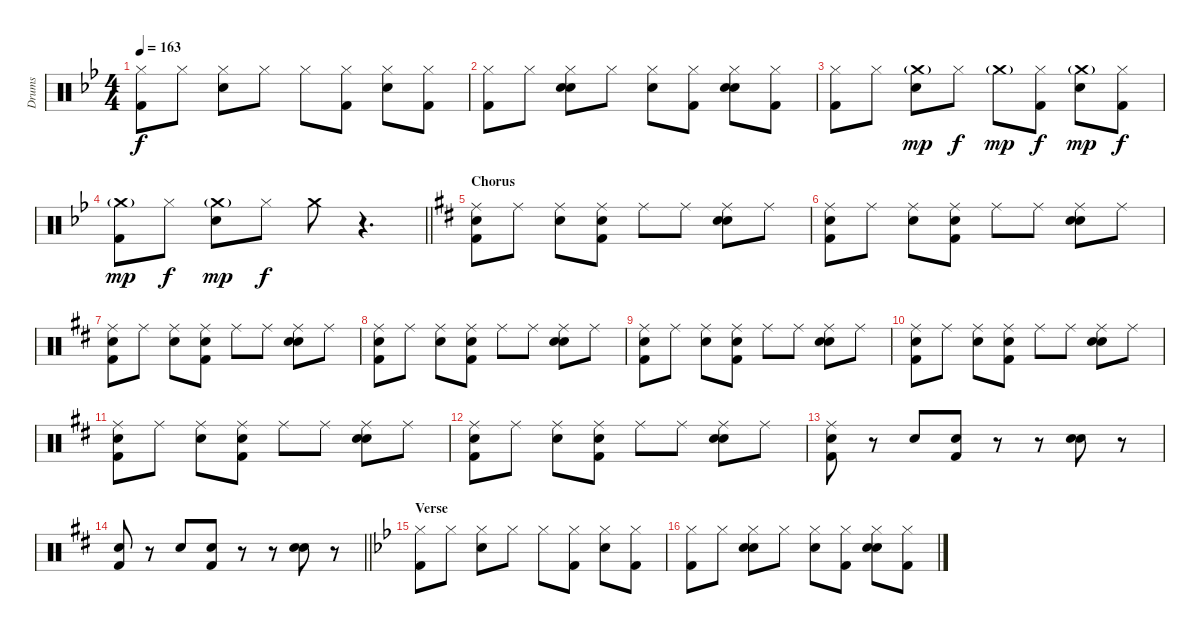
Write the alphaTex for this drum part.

\track ("Drums" "Drums") {instrument percussion}
\staff {score}
\articulation defaults
\ts (4 4)
\tempo 163
\clef neutral
\ks bb
("Hi-Hat (closed)" "Kick (hit) 2").8{dy f} "Hi-Hat (closed)".8 ("Hi-Hat (closed)" "Snare (hit) 2").8 "Hi-Hat (closed)".8 "Hi-Hat (closed)".8 ("Hi-Hat (closed)" "Kick (hit) 2").8 ("Hi-Hat (closed)" "Snare (hit) 2").8 ("Hi-Hat (closed)" "Kick (hit) 2").8 |
("Hi-Hat (closed)" "Kick (hit) 2").8 "Hi-Hat (closed)".8 ("Hi-Hat (closed)" "Hand Clap (hit)" "Snare (hit) 2").8 "Hi-Hat (closed)".8 ("Hi-Hat (closed)" "Hand Clap (hit)").8 ("Hi-Hat (closed)" "Kick (hit) 2").8 ("Hi-Hat (closed)" "Hand Clap (hit)" "Snare (hit) 2").8 ("Hi-Hat (closed)" "Kick (hit) 2").8 |
("Hi-Hat (closed)" "Kick (hit) 2").8 "Hi-Hat (closed)".8 ("Crash medium (hit)"{g} "Snare (hit) 2").8{dy mp} "Hi-Hat (closed)".8{dy f} "Crash medium (hit)"{g}.8{dy mp} ("Hi-Hat (closed)" "Kick (hit) 2").8{dy f} ("Crash medium (hit)"{g} "Snare (hit) 2").8{dy mp} ("Hi-Hat (closed)" "Kick (hit) 2").8{dy f} |
\barLineRight lightlight
("Crash medium (hit)"{g} "Kick (hit) 2").8{dy mp} "Hi-Hat (closed)".8{dy f} ("Crash medium (hit)"{g} "Snare (hit) 2").8{dy mp} "Hi-Hat (closed)".8{dy f} "Crash medium (hit)".8 r.4{d} |
\section ("" "Chorus")
\ks d
("Ride (middle)" "Snare (hit) 2" "Kick (hit) 2").8 "Ride (middle)".8 ("Ride (middle)" "Hand Clap (hit)").8 ("Ride (middle)" "Snare (hit) 2" "Kick (hit) 2").8 "Ride (middle)".8 "Ride (middle)".8 ("Ride (middle)" "Hand Clap (hit)" "Snare (hit) 2").8 "Ride (middle)".8 |
("Ride (middle)" "Snare (hit) 2" "Kick (hit) 2").8 "Ride (middle)".8 ("Ride (middle)" "Hand Clap (hit)").8 ("Ride (middle)" "Snare (hit) 2" "Kick (hit) 2").8 "Ride (middle)".8 "Ride (middle)".8 ("Ride (middle)" "Hand Clap (hit)" "Snare (hit) 2").8 "Ride (middle)".8 |
("Ride (middle)" "Snare (hit) 2" "Kick (hit) 2").8 "Ride (middle)".8 ("Ride (middle)" "Hand Clap (hit)").8 ("Ride (middle)" "Snare (hit) 2" "Kick (hit) 2").8 "Ride (middle)".8 "Ride (middle)".8 ("Ride (middle)" "Hand Clap (hit)" "Snare (hit) 2").8 "Ride (middle)".8 |
("Ride (middle)" "Snare (hit) 2" "Kick (hit) 2").8 "Ride (middle)".8 ("Ride (middle)" "Hand Clap (hit)").8 ("Ride (middle)" "Snare (hit) 2" "Kick (hit) 2").8 "Ride (middle)".8 "Ride (middle)".8 ("Ride (middle)" "Hand Clap (hit)" "Snare (hit) 2").8 "Ride (middle)".8 |
("Ride (middle)" "Snare (hit) 2" "Kick (hit) 2").8 "Ride (middle)".8 ("Ride (middle)" "Hand Clap (hit)").8 ("Ride (middle)" "Snare (hit) 2" "Kick (hit) 2").8 "Ride (middle)".8 "Ride (middle)".8 ("Ride (middle)" "Hand Clap (hit)" "Snare (hit) 2").8 "Ride (middle)".8 |
("Ride (middle)" "Snare (hit) 2" "Kick (hit) 2").8 "Ride (middle)".8 ("Ride (middle)" "Hand Clap (hit)").8 ("Ride (middle)" "Snare (hit) 2" "Kick (hit) 2").8 "Ride (middle)".8 "Ride (middle)".8 ("Ride (middle)" "Hand Clap (hit)" "Snare (hit) 2").8 "Ride (middle)".8 |
("Ride (middle)" "Snare (hit) 2" "Kick (hit) 2").8 "Ride (middle)".8 ("Ride (middle)" "Hand Clap (hit)").8 ("Ride (middle)" "Snare (hit) 2" "Kick (hit) 2").8 "Ride (middle)".8 "Ride (middle)".8 ("Ride (middle)" "Hand Clap (hit)" "Snare (hit) 2").8 "Ride (middle)".8 |
("Ride (middle)" "Snare (hit) 2" "Kick (hit) 2").8 "Ride (middle)".8 ("Ride (middle)" "Hand Clap (hit)").8 ("Ride (middle)" "Snare (hit) 2" "Kick (hit) 2").8 "Ride (middle)".8 "Ride (middle)".8 ("Ride (middle)" "Hand Clap (hit)" "Snare (hit) 2").8 "Ride (middle)".8 |
("Ride (middle)" "Snare (hit) 2" "Kick (hit) 2").8 r.8 "Hand Clap (hit)".8 ("Snare (hit) 2" "Kick (hit) 2").8 r.8 r.8 ("Hand Clap (hit)" "Snare (hit) 2").8 r.8 |
\barLineRight lightlight
("Snare (hit) 2" "Kick (hit) 2").8 r.8 "Hand Clap (hit)".8 ("Snare (hit) 2" "Kick (hit) 2").8 r.8 r.8 ("Hand Clap (hit)" "Snare (hit) 2").8 r.8 |
\section ("" "Verse")
\ks bb
("Hi-Hat (closed)" "Kick (hit) 2").8 "Hi-Hat (closed)".8 ("Hi-Hat (closed)" "Snare (hit) 2").8 "Hi-Hat (closed)".8 "Hi-Hat (closed)".8 ("Hi-Hat (closed)" "Kick (hit) 2").8 ("Hi-Hat (closed)" "Snare (hit) 2").8 ("Hi-Hat (closed)" "Kick (hit) 2").8 |
("Hi-Hat (closed)" "Kick (hit) 2").8 "Hi-Hat (closed)".8 ("Hi-Hat (closed)" "Hand Clap (hit)" "Snare (hit) 2").8 "Hi-Hat (closed)".8 ("Hi-Hat (closed)" "Hand Clap (hit)").8 ("Hi-Hat (closed)" "Kick (hit) 2").8 ("Hi-Hat (closed)" "Hand Clap (hit)" "Snare (hit) 2").8 ("Hi-Hat (closed)" "Kick (hit) 2").8
